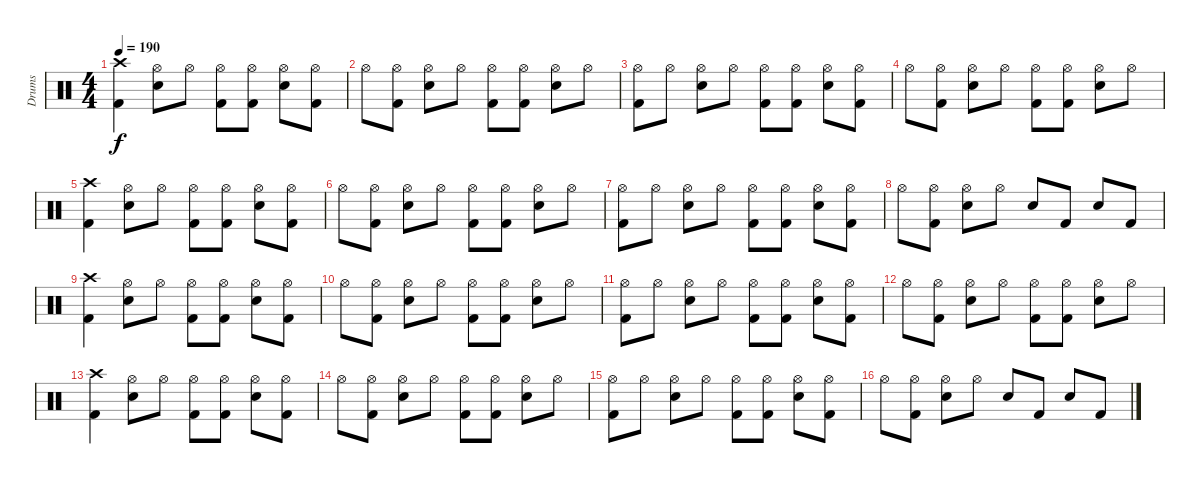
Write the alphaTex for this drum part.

\track ("Drums" "Drums") {instrument percussion}
\staff {score}
\articulation defaults
\ts (4 4)
\tempo 190
\clef neutral
\ks c
("Crash high (hit)" "Kick (hit) 2").4{dy f} ("Hi-Hat (open)" "Electric Snare (hit)").8 "Hi-Hat (open)".8 ("Hi-Hat (open)" "Kick (hit) 2").8 ("Hi-Hat (open)" "Kick (hit) 2").8 ("Hi-Hat (open)" "Electric Snare (hit)").8 ("Hi-Hat (open)" "Kick (hit) 2").8 |
"Hi-Hat (open)".8 ("Hi-Hat (open)" "Kick (hit) 2").8 ("Hi-Hat (open)" "Electric Snare (hit)").8 "Hi-Hat (open)".8 ("Hi-Hat (open)" "Kick (hit) 2").8 ("Hi-Hat (open)" "Kick (hit) 2").8 ("Hi-Hat (open)" "Electric Snare (hit)").8 "Hi-Hat (open)".8 |
("Hi-Hat (open)" "Kick (hit) 2").8 "Hi-Hat (open)".8 ("Hi-Hat (open)" "Electric Snare (hit)").8 "Hi-Hat (open)".8 ("Hi-Hat (open)" "Kick (hit) 2").8 ("Hi-Hat (open)" "Kick (hit) 2").8 ("Hi-Hat (open)" "Electric Snare (hit)").8 ("Hi-Hat (open)" "Kick (hit) 2").8 |
"Hi-Hat (open)".8 ("Hi-Hat (open)" "Kick (hit) 2").8 ("Hi-Hat (open)" "Electric Snare (hit)").8 "Hi-Hat (open)".8 ("Hi-Hat (open)" "Kick (hit) 2").8 ("Hi-Hat (open)" "Kick (hit) 2").8 ("Hi-Hat (open)" "Electric Snare (hit)").8 "Hi-Hat (open)".8 |
("Crash high (hit)" "Kick (hit) 2").4 ("Hi-Hat (open)" "Electric Snare (hit)").8 "Hi-Hat (open)".8 ("Hi-Hat (open)" "Kick (hit) 2").8 ("Hi-Hat (open)" "Kick (hit) 2").8 ("Hi-Hat (open)" "Electric Snare (hit)").8 ("Hi-Hat (open)" "Kick (hit) 2").8 |
"Hi-Hat (open)".8 ("Hi-Hat (open)" "Kick (hit) 2").8 ("Hi-Hat (open)" "Electric Snare (hit)").8 "Hi-Hat (open)".8 ("Hi-Hat (open)" "Kick (hit) 2").8 ("Hi-Hat (open)" "Kick (hit) 2").8 ("Hi-Hat (open)" "Electric Snare (hit)").8 "Hi-Hat (open)".8 |
("Hi-Hat (open)" "Kick (hit) 2").8 "Hi-Hat (open)".8 ("Hi-Hat (open)" "Electric Snare (hit)").8 "Hi-Hat (open)".8 ("Hi-Hat (open)" "Kick (hit) 2").8 ("Hi-Hat (open)" "Kick (hit) 2").8 ("Hi-Hat (open)" "Electric Snare (hit)").8 ("Hi-Hat (open)" "Kick (hit) 2").8 |
"Hi-Hat (open)".8 ("Hi-Hat (open)" "Kick (hit) 2").8 ("Hi-Hat (open)" "Electric Snare (hit)").8 "Hi-Hat (open)".8 "Electric Snare (hit)".8 "Kick (hit) 2".8 "Electric Snare (hit)".8 "Kick (hit) 2".8 |
("Crash high (hit)" "Kick (hit) 2").4 ("Hi-Hat (open)" "Electric Snare (hit)").8 "Hi-Hat (open)".8 ("Hi-Hat (open)" "Kick (hit) 2").8 ("Hi-Hat (open)" "Kick (hit) 2").8 ("Hi-Hat (open)" "Electric Snare (hit)").8 ("Hi-Hat (open)" "Kick (hit) 2").8 |
"Hi-Hat (open)".8 ("Hi-Hat (open)" "Kick (hit) 2").8 ("Hi-Hat (open)" "Electric Snare (hit)").8 "Hi-Hat (open)".8 ("Hi-Hat (open)" "Kick (hit) 2").8 ("Hi-Hat (open)" "Kick (hit) 2").8 ("Hi-Hat (open)" "Electric Snare (hit)").8 "Hi-Hat (open)".8 |
("Hi-Hat (open)" "Kick (hit) 2").8 "Hi-Hat (open)".8 ("Hi-Hat (open)" "Electric Snare (hit)").8 "Hi-Hat (open)".8 ("Hi-Hat (open)" "Kick (hit) 2").8 ("Hi-Hat (open)" "Kick (hit) 2").8 ("Hi-Hat (open)" "Electric Snare (hit)").8 ("Hi-Hat (open)" "Kick (hit) 2").8 |
"Hi-Hat (open)".8 ("Hi-Hat (open)" "Kick (hit) 2").8 ("Hi-Hat (open)" "Electric Snare (hit)").8 "Hi-Hat (open)".8 ("Hi-Hat (open)" "Kick (hit) 2").8 ("Hi-Hat (open)" "Kick (hit) 2").8 ("Hi-Hat (open)" "Electric Snare (hit)").8 "Hi-Hat (open)".8 |
("Crash high (hit)" "Kick (hit) 2").4 ("Hi-Hat (open)" "Electric Snare (hit)").8 "Hi-Hat (open)".8 ("Hi-Hat (open)" "Kick (hit) 2").8 ("Hi-Hat (open)" "Kick (hit) 2").8 ("Hi-Hat (open)" "Electric Snare (hit)").8 ("Hi-Hat (open)" "Kick (hit) 2").8 |
"Hi-Hat (open)".8 ("Hi-Hat (open)" "Kick (hit) 2").8 ("Hi-Hat (open)" "Electric Snare (hit)").8 "Hi-Hat (open)".8 ("Hi-Hat (open)" "Kick (hit) 2").8 ("Hi-Hat (open)" "Kick (hit) 2").8 ("Hi-Hat (open)" "Electric Snare (hit)").8 "Hi-Hat (open)".8 |
("Hi-Hat (open)" "Kick (hit) 2").8 "Hi-Hat (open)".8 ("Hi-Hat (open)" "Electric Snare (hit)").8 "Hi-Hat (open)".8 ("Hi-Hat (open)" "Kick (hit) 2").8 ("Hi-Hat (open)" "Kick (hit) 2").8 ("Hi-Hat (open)" "Electric Snare (hit)").8 ("Hi-Hat (open)" "Kick (hit) 2").8 |
"Hi-Hat (open)".8 ("Hi-Hat (open)" "Kick (hit) 2").8 ("Hi-Hat (open)" "Electric Snare (hit)").8 "Hi-Hat (open)".8 "Electric Snare (hit)".8 "Kick (hit) 2".8 "Electric Snare (hit)".8 "Kick (hit) 2".8
